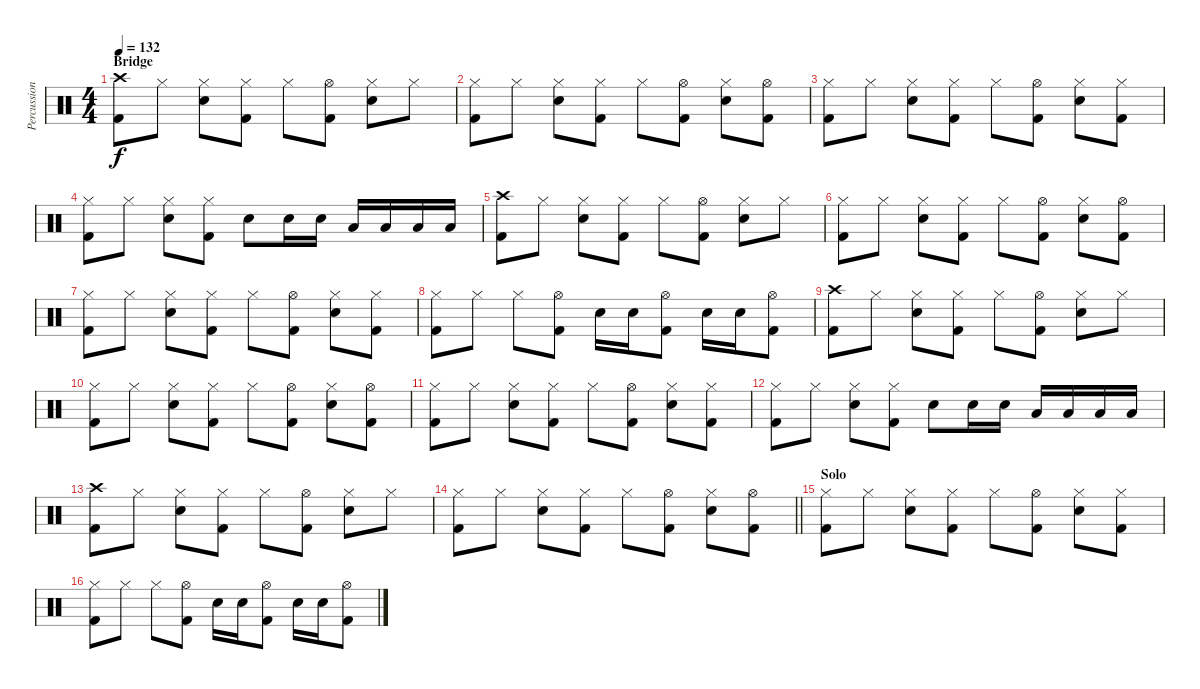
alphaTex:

\track ("Percussioni" "Percussion") {instrument percussion}
\staff {score}
\articulation defaults
\ts (4 4)
\section ("" "Bridge")
\tempo 132
\clef neutral
\ks c
("Crash high (hit)" "Kick (hit) 2").8{dy f} "Hi-Hat (closed)".8 ("Hi-Hat (closed)" "Snare (hit) 2").8 ("Hi-Hat (closed)" "Kick (hit) 2").8 "Hi-Hat (closed)".8 ("Hi-Hat (open)" "Kick (hit) 2").8 ("Hi-Hat (closed)" "Snare (hit) 2").8 "Hi-Hat (closed)".8 |
("Hi-Hat (closed)" "Kick (hit) 2").8 "Hi-Hat (closed)".8 ("Hi-Hat (closed)" "Snare (hit) 2").8 ("Hi-Hat (closed)" "Kick (hit) 2").8 "Hi-Hat (closed)".8 ("Hi-Hat (open)" "Kick (hit) 2").8 ("Hi-Hat (closed)" "Snare (hit) 2").8 ("Hi-Hat (open)" "Kick (hit) 2").8 |
("Hi-Hat (closed)" "Kick (hit) 2").8 "Hi-Hat (closed)".8 ("Hi-Hat (closed)" "Snare (hit) 2").8 ("Hi-Hat (closed)" "Kick (hit) 2").8 "Hi-Hat (closed)".8 ("Hi-Hat (open)" "Kick (hit) 2").8 ("Hi-Hat (closed)" "Snare (hit) 2").8 ("Hi-Hat (closed)" "Kick (hit) 2").8 |
("Hi-Hat (closed)" "Kick (hit) 2").8 "Hi-Hat (closed)".8 ("Hi-Hat (closed)" "Snare (hit) 2").8 ("Hi-Hat (closed)" "Kick (hit) 2").8 "Snare (hit) 2".8 "Snare (hit) 2".16 "Snare (hit) 2".16 "Low Floor Tom (hit)".16 "Low Floor Tom (hit)".16 "Low Floor Tom (hit)".16 "Low Floor Tom (hit)".16 |
("Crash high (hit)" "Kick (hit) 2").8 "Hi-Hat (closed)".8 ("Hi-Hat (closed)" "Snare (hit) 2").8 ("Hi-Hat (closed)" "Kick (hit) 2").8 "Hi-Hat (closed)".8 ("Hi-Hat (open)" "Kick (hit) 2").8 ("Hi-Hat (closed)" "Snare (hit) 2").8 "Hi-Hat (closed)".8 |
("Hi-Hat (closed)" "Kick (hit) 2").8 "Hi-Hat (closed)".8 ("Hi-Hat (closed)" "Snare (hit) 2").8 ("Hi-Hat (closed)" "Kick (hit) 2").8 "Hi-Hat (closed)".8 ("Hi-Hat (open)" "Kick (hit) 2").8 ("Hi-Hat (closed)" "Snare (hit) 2").8 ("Hi-Hat (open)" "Kick (hit) 2").8 |
("Hi-Hat (closed)" "Kick (hit) 2").8 "Hi-Hat (closed)".8 ("Hi-Hat (closed)" "Snare (hit) 2").8 ("Hi-Hat (closed)" "Kick (hit) 2").8 "Hi-Hat (closed)".8 ("Hi-Hat (open)" "Kick (hit) 2").8 ("Hi-Hat (closed)" "Snare (hit) 2").8 ("Hi-Hat (closed)" "Kick (hit) 2").8 |
("Hi-Hat (closed)" "Kick (hit) 2").8 "Hi-Hat (closed)".8 "Hi-Hat (closed)".8 ("Hi-Hat (open)" "Kick (hit) 2").8 "Snare (hit) 2".16 "Snare (hit) 2".16 ("Hi-Hat (open)" "Kick (hit) 2").8 "Snare (hit) 2".16 "Snare (hit) 2".16 ("Hi-Hat (open)" "Kick (hit) 2").8 |
("Crash high (hit)" "Kick (hit) 2").8 "Hi-Hat (closed)".8 ("Hi-Hat (closed)" "Snare (hit) 2").8 ("Hi-Hat (closed)" "Kick (hit) 2").8 "Hi-Hat (closed)".8 ("Hi-Hat (open)" "Kick (hit) 2").8 ("Hi-Hat (closed)" "Snare (hit) 2").8 "Hi-Hat (closed)".8 |
("Hi-Hat (closed)" "Kick (hit) 2").8 "Hi-Hat (closed)".8 ("Hi-Hat (closed)" "Snare (hit) 2").8 ("Hi-Hat (closed)" "Kick (hit) 2").8 "Hi-Hat (closed)".8 ("Hi-Hat (open)" "Kick (hit) 2").8 ("Hi-Hat (closed)" "Snare (hit) 2").8 ("Hi-Hat (open)" "Kick (hit) 2").8 |
("Hi-Hat (closed)" "Kick (hit) 2").8 "Hi-Hat (closed)".8 ("Hi-Hat (closed)" "Snare (hit) 2").8 ("Hi-Hat (closed)" "Kick (hit) 2").8 "Hi-Hat (closed)".8 ("Hi-Hat (open)" "Kick (hit) 2").8 ("Hi-Hat (closed)" "Snare (hit) 2").8 ("Hi-Hat (closed)" "Kick (hit) 2").8 |
("Hi-Hat (closed)" "Kick (hit) 2").8 "Hi-Hat (closed)".8 ("Hi-Hat (closed)" "Snare (hit) 2").8 ("Hi-Hat (closed)" "Kick (hit) 2").8 "Snare (hit) 2".8 "Snare (hit) 2".16 "Snare (hit) 2".16 "Low Floor Tom (hit)".16 "Low Floor Tom (hit)".16 "Low Floor Tom (hit)".16 "Low Floor Tom (hit)".16 |
("Crash high (hit)" "Kick (hit) 2").8 "Hi-Hat (closed)".8 ("Hi-Hat (closed)" "Snare (hit) 2").8 ("Hi-Hat (closed)" "Kick (hit) 2").8 "Hi-Hat (closed)".8 ("Hi-Hat (open)" "Kick (hit) 2").8 ("Hi-Hat (closed)" "Snare (hit) 2").8 "Hi-Hat (closed)".8 |
\barLineRight lightlight
("Hi-Hat (closed)" "Kick (hit) 2").8 "Hi-Hat (closed)".8 ("Hi-Hat (closed)" "Snare (hit) 2").8 ("Hi-Hat (closed)" "Kick (hit) 2").8 "Hi-Hat (closed)".8 ("Hi-Hat (open)" "Kick (hit) 2").8 ("Hi-Hat (closed)" "Snare (hit) 2").8 ("Hi-Hat (open)" "Kick (hit) 2").8 |
\section ("" "Solo")
("Hi-Hat (closed)" "Kick (hit) 2").8 "Hi-Hat (closed)".8 ("Hi-Hat (closed)" "Snare (hit) 2").8 ("Hi-Hat (closed)" "Kick (hit) 2").8 "Hi-Hat (closed)".8 ("Hi-Hat (open)" "Kick (hit) 2").8 ("Hi-Hat (closed)" "Snare (hit) 2").8 ("Hi-Hat (closed)" "Kick (hit) 2").8 |
("Hi-Hat (closed)" "Kick (hit) 2").8 "Hi-Hat (closed)".8 "Hi-Hat (closed)".8 ("Hi-Hat (open)" "Kick (hit) 2").8 "Snare (hit) 2".16 "Snare (hit) 2".16 ("Hi-Hat (open)" "Kick (hit) 2").8 "Snare (hit) 2".16 "Snare (hit) 2".16 ("Hi-Hat (open)" "Kick (hit) 2").8
